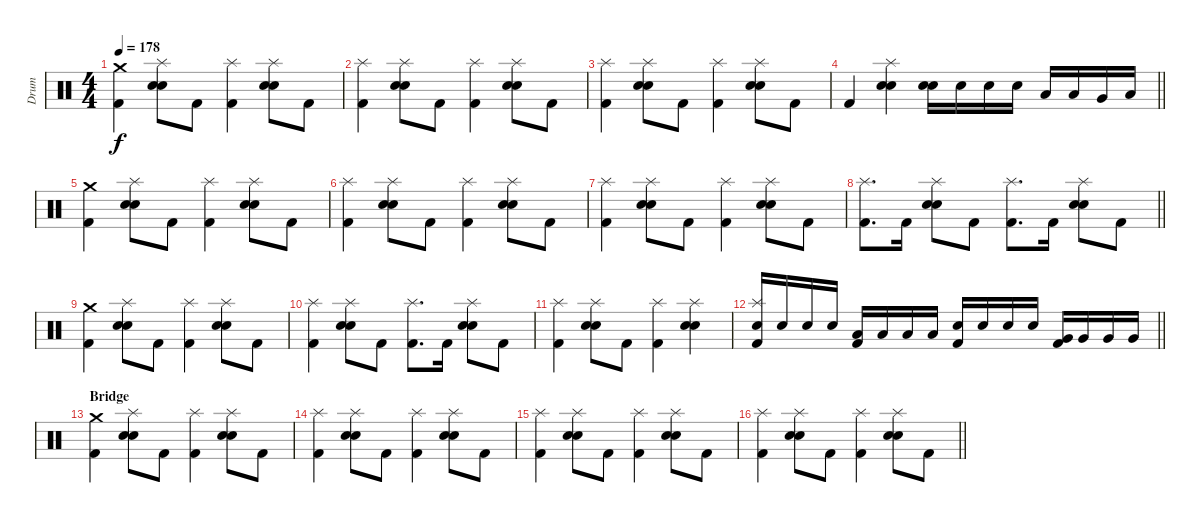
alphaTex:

\track ("Drum" "Drum") {instrument percussion}
\staff {score}
\articulation defaults
\ts (4 4)
\tempo 178
\clef neutral
\ks c
("Crash medium (hit)" "Kick (hit) 2").4{dy f} ("Splash (hit)" "Electric Snare (hit)" "Snare (hit) 2").8 "Kick (hit) 2".8 ("Splash (hit)" "Kick (hit) 2").4 ("Splash (hit)" "Electric Snare (hit)" "Snare (hit) 2").8 "Kick (hit) 2".8 |
("Splash (hit)" "Kick (hit) 2").4 ("Splash (hit)" "Electric Snare (hit)" "Snare (hit) 2").8 "Kick (hit) 2".8 ("Splash (hit)" "Kick (hit) 2").4 ("Splash (hit)" "Electric Snare (hit)" "Snare (hit) 2").8 "Kick (hit) 2".8 |
("Splash (hit)" "Kick (hit) 2").4 ("Splash (hit)" "Electric Snare (hit)" "Snare (hit) 2").8 "Kick (hit) 2".8 ("Splash (hit)" "Kick (hit) 2").4 ("Splash (hit)" "Electric Snare (hit)" "Snare (hit) 2").8 "Kick (hit) 2".8 |
\barLineRight lightlight "Kick (hit) 2".4
("Splash (hit)" "Electric Snare (hit)" "Snare (hit) 2").4 ("Electric Snare (hit)" "Snare (hit) 2").16 "Electric Snare (hit)".16 "Electric Snare (hit)".16 "Electric Snare (hit)".16 "Low Tom (hit)".16 "Low Tom (hit)".16 "Very Low Tom (hit)".16 "Low Floor Tom (hit)".16 |
("Crash medium (hit)" "Kick (hit) 2").4 ("Splash (hit)" "Electric Snare (hit)" "Snare (hit) 2").8 "Kick (hit) 2".8 ("Splash (hit)" "Kick (hit) 2").4 ("Splash (hit)" "Electric Snare (hit)" "Snare (hit) 2").8 "Kick (hit) 2".8 |
("Splash (hit)" "Kick (hit) 2").4 ("Splash (hit)" "Electric Snare (hit)" "Snare (hit) 2").8 "Kick (hit) 2".8 ("Splash (hit)" "Kick (hit) 2").4 ("Splash (hit)" "Electric Snare (hit)" "Snare (hit) 2").8 "Kick (hit) 2".8 |
("Splash (hit)" "Kick (hit) 2").4 ("Splash (hit)" "Electric Snare (hit)" "Snare (hit) 2").8 "Kick (hit) 2".8 ("Splash (hit)" "Kick (hit) 2").4 ("Splash (hit)" "Electric Snare (hit)" "Snare (hit) 2").8 "Kick (hit) 2".8 |
\barLineRight lightlight
("Splash (hit)" "Kick (hit) 2").8{d} "Kick (hit) 2".16 ("Splash (hit)" "Electric Snare (hit)" "Snare (hit) 2").8 "Kick (hit) 2".8 ("Splash (hit)" "Kick (hit) 2").8{d} "Kick (hit) 2".16 ("Splash (hit)" "Electric Snare (hit)" "Snare (hit) 2").8 "Kick (hit) 2".8 |
("Crash medium (hit)" "Kick (hit) 2").4 ("Splash (hit)" "Electric Snare (hit)" "Snare (hit) 2").8 "Kick (hit) 2".8 ("Splash (hit)" "Kick (hit) 2").4 ("Splash (hit)" "Electric Snare (hit)" "Snare (hit) 2").8 "Kick (hit) 2".8 |
("Splash (hit)" "Kick (hit) 2").4 ("Splash (hit)" "Electric Snare (hit)" "Snare (hit) 2").8 "Kick (hit) 2".8 ("Splash (hit)" "Kick (hit) 2").8{d} "Kick (hit) 2".16 ("Splash (hit)" "Electric Snare (hit)" "Snare (hit) 2").8 "Kick (hit) 2".8 |
("Splash (hit)" "Kick (hit) 2").4 ("Splash (hit)" "Electric Snare (hit)" "Snare (hit) 2").8 "Kick (hit) 2".8 ("Splash (hit)" "Kick (hit) 2").4 ("Splash (hit)" "Electric Snare (hit)" "Snare (hit) 2").4 |
\barLineRight lightlight
("Splash (hit)" "Electric Snare (hit)" "Kick (hit) 2").16 "Electric Snare (hit)".16 "Electric Snare (hit)".16 "Electric Snare (hit)".16 ("Low Tom (hit)" "Kick (hit) 2").16 "Low Tom (hit)".16 "Low Tom (hit)".16 "Low Tom (hit)".16 ("Electric Snare (hit)" "Kick (hit) 2").16 "Electric Snare (hit)".16 "Electric Snare (hit)".16 "Electric Snare (hit)".16 ("Very Low Tom (hit)" "Kick (hit) 2").16 "Very Low Tom (hit)".16 "Very Low Tom (hit)".16 "Very Low Tom (hit)".16 |
\section ("" "Bridge")
("Crash medium (hit)" "Kick (hit) 2").4 ("Splash (hit)" "Electric Snare (hit)" "Snare (hit) 2").8 "Kick (hit) 2".8 ("Splash (hit)" "Kick (hit) 2").4 ("Splash (hit)" "Electric Snare (hit)" "Snare (hit) 2").8 "Kick (hit) 2".8 |
("Splash (hit)" "Kick (hit) 2").4 ("Splash (hit)" "Electric Snare (hit)" "Snare (hit) 2").8 "Kick (hit) 2".8 ("Splash (hit)" "Kick (hit) 2").4 ("Splash (hit)" "Electric Snare (hit)" "Snare (hit) 2").8 "Kick (hit) 2".8 |
("Splash (hit)" "Kick (hit) 2").4 ("Splash (hit)" "Electric Snare (hit)" "Snare (hit) 2").8 "Kick (hit) 2".8 ("Splash (hit)" "Kick (hit) 2").4 ("Splash (hit)" "Electric Snare (hit)" "Snare (hit) 2").8 "Kick (hit) 2".8 |
\barLineRight lightlight
("Splash (hit)" "Kick (hit) 2").4 ("Splash (hit)" "Electric Snare (hit)" "Snare (hit) 2").8 "Kick (hit) 2".8 ("Splash (hit)" "Kick (hit) 2").4 ("Splash (hit)" "Electric Snare (hit)" "Snare (hit) 2").8 "Kick (hit) 2".8
